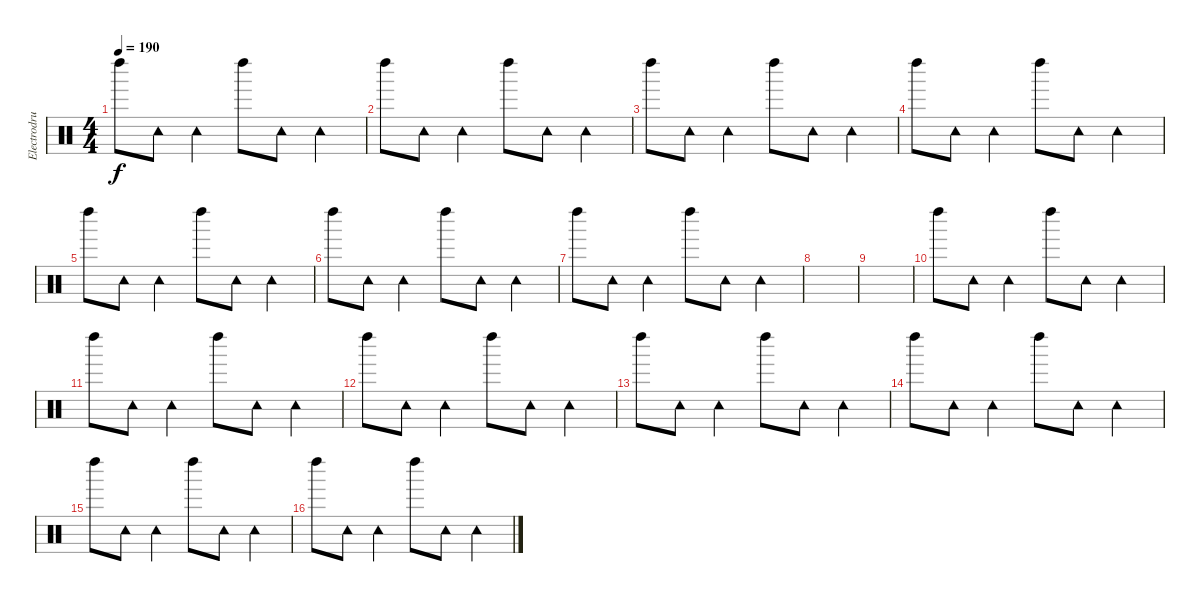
\track ("Electrodrums2" "Electrodru") {instrument percussion}
\staff {score}
\articulation defaults
\ts (4 4)
\tempo 190
\clef neutral
\ks c "Left Maraca (hit)".8{dy f} "Tambourine (hit)".8 "Tambourine (hit)".4 "Left Maraca (hit)".8 "Tambourine (hit)".8 "Tambourine (hit)".4
|
"Left Maraca (hit)".8 "Tambourine (hit)".8 "Tambourine (hit)".4 "Left Maraca (hit)".8 "Tambourine (hit)".8 "Tambourine (hit)".4 |
"Left Maraca (hit)".8 "Tambourine (hit)".8 "Tambourine (hit)".4 "Left Maraca (hit)".8 "Tambourine (hit)".8 "Tambourine (hit)".4 |
"Left Maraca (hit)".8 "Tambourine (hit)".8 "Tambourine (hit)".4 "Left Maraca (hit)".8 "Tambourine (hit)".8 "Tambourine (hit)".4 |
"Left Maraca (hit)".8 "Tambourine (hit)".8 "Tambourine (hit)".4 "Left Maraca (hit)".8 "Tambourine (hit)".8 "Tambourine (hit)".4 |
"Left Maraca (hit)".8 "Tambourine (hit)".8 "Tambourine (hit)".4 "Left Maraca (hit)".8 "Tambourine (hit)".8 "Tambourine (hit)".4 |
"Left Maraca (hit)".8 "Tambourine (hit)".8 "Tambourine (hit)".4 "Left Maraca (hit)".8 "Tambourine (hit)".8 "Tambourine (hit)".4 |
|
|
"Left Maraca (hit)".8 "Tambourine (hit)".8 "Tambourine (hit)".4 "Left Maraca (hit)".8 "Tambourine (hit)".8 "Tambourine (hit)".4 |
"Left Maraca (hit)".8 "Tambourine (hit)".8 "Tambourine (hit)".4 "Left Maraca (hit)".8 "Tambourine (hit)".8 "Tambourine (hit)".4 |
"Left Maraca (hit)".8 "Tambourine (hit)".8 "Tambourine (hit)".4 "Left Maraca (hit)".8 "Tambourine (hit)".8 "Tambourine (hit)".4 |
"Left Maraca (hit)".8 "Tambourine (hit)".8 "Tambourine (hit)".4 "Left Maraca (hit)".8 "Tambourine (hit)".8 "Tambourine (hit)".4 |
"Left Maraca (hit)".8 "Tambourine (hit)".8 "Tambourine (hit)".4 "Left Maraca (hit)".8 "Tambourine (hit)".8 "Tambourine (hit)".4 |
"Left Maraca (hit)".8 "Tambourine (hit)".8 "Tambourine (hit)".4 "Left Maraca (hit)".8 "Tambourine (hit)".8 "Tambourine (hit)".4 |
"Left Maraca (hit)".8 "Tambourine (hit)".8 "Tambourine (hit)".4 "Left Maraca (hit)".8 "Tambourine (hit)".8 "Tambourine (hit)".4
